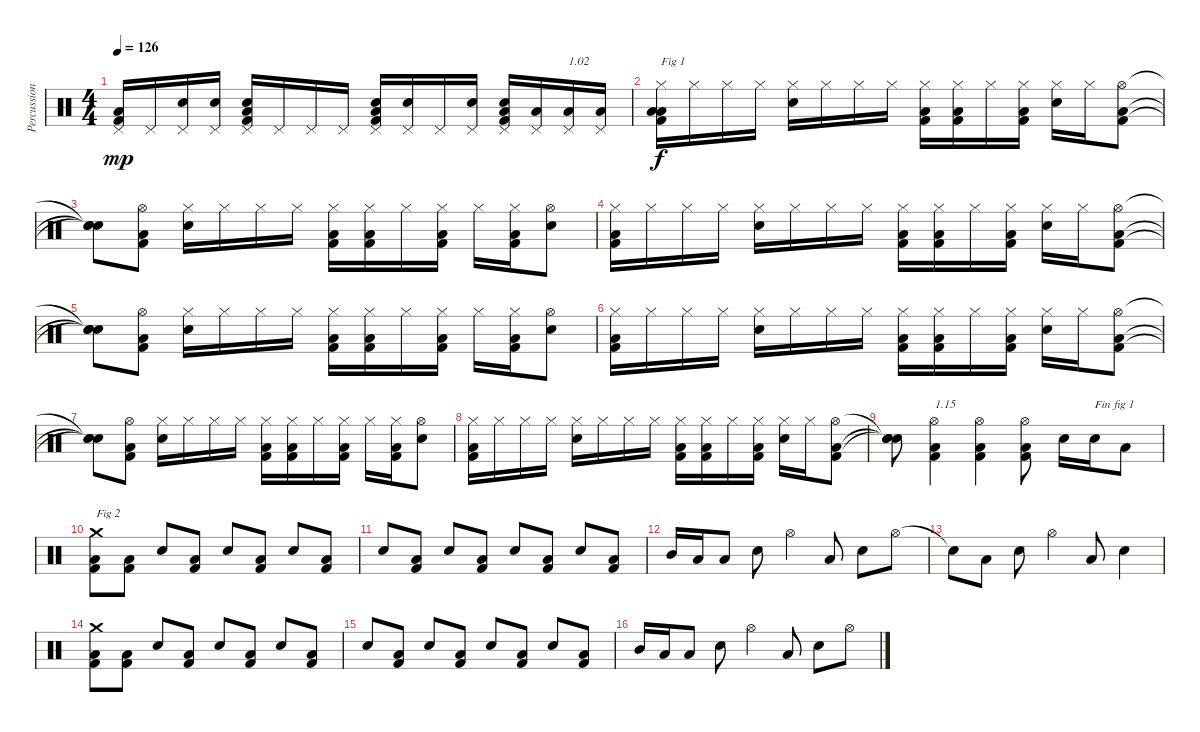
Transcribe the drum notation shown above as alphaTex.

\track ("Percussions" "Percussion") {instrument percussion}
\staff {score}
\articulation defaults
\ts (4 4)
\tempo 126
\clef neutral
\ks c
("Kick (hit) 2" "Low Floor Tom (hit)" "Pedal Hi-Hat (hit)").16{dy mp} "Pedal Hi-Hat (hit)".16 ("Snare (hit) 2" "Pedal Hi-Hat (hit)").16 ("Snare (hit) 2" "Pedal Hi-Hat (hit)").16 ("Kick (hit) 2" "Low Floor Tom (hit)" "Snare (hit) 2" "Pedal Hi-Hat (hit)").16 "Pedal Hi-Hat (hit)".16 "Pedal Hi-Hat (hit)".16 "Pedal Hi-Hat (hit)".16 ("Kick (hit) 2" "Low Floor Tom (hit)" "Snare (hit) 2" "Pedal Hi-Hat (hit)").16 ("Snare (hit) 2" "Pedal Hi-Hat (hit)").16 "Pedal Hi-Hat (hit)".16 ("Snare (hit) 2" "Pedal Hi-Hat (hit)").16 ("Kick (hit) 2" "Low Floor Tom (hit)" "Snare (hit) 2" "Pedal Hi-Hat (hit)").16 ("Low Tom (hit)" "Pedal Hi-Hat (hit)").16 ("Low Tom (hit)" "Pedal Hi-Hat (hit)").16{txt "1.02"} ("Low Tom (hit)" "Pedal Hi-Hat (hit)").16 |
("Kick (hit) 2" "Low Floor Tom (hit)" "Low Tom (hit)" "Hi-Hat (closed)").16{txt "Fig 1" dy f} "Hi-Hat (closed)".16 "Hi-Hat (closed)".16 "Hi-Hat (closed)".16 ("Snare (hit) 2" "Hi-Hat (closed)").16 "Hi-Hat (closed)".16 "Hi-Hat (closed)".16 "Hi-Hat (closed)".16 ("Kick (hit) 2" "Low Floor Tom (hit)" "Hi-Hat (closed)").16 ("Kick (hit) 2" "Low Floor Tom (hit)" "Hi-Hat (closed)").16 "Hi-Hat (closed)".16 ("Kick (hit) 2" "Low Floor Tom (hit)" "Hi-Hat (closed)").16 ("Snare (hit) 2" "Hi-Hat (closed)").16 "Hi-Hat (closed)".16 ("Kick (hit) 2" "Low Floor Tom (hit)" "Hi-Hat (open)").8 |
("Snare (hit)"{t} "Snare (hit)"{t} "Snare (hit)"{t}).8 ("Kick (hit) 2" "Low Floor Tom (hit)" "Hi-Hat (open)").8 ("Snare (hit) 2" "Hi-Hat (closed)").16 "Hi-Hat (closed)".16 "Hi-Hat (closed)".16 "Hi-Hat (closed)".16 ("Kick (hit) 2" "Low Floor Tom (hit)" "Hi-Hat (closed)").16 ("Kick (hit) 2" "Low Floor Tom (hit)" "Hi-Hat (closed)").16 "Hi-Hat (closed)".16 ("Kick (hit) 2" "Low Floor Tom (hit)" "Hi-Hat (closed)").16 "Hi-Hat (closed)".16 ("Kick (hit) 2" "Low Floor Tom (hit)" "Hi-Hat (closed)").16 ("Snare (hit) 2" "Hi-Hat (open)").8 |
("Kick (hit) 2" "Low Floor Tom (hit)" "Hi-Hat (closed)").16 "Hi-Hat (closed)".16 "Hi-Hat (closed)".16 "Hi-Hat (closed)".16 ("Snare (hit) 2" "Hi-Hat (closed)").16 "Hi-Hat (closed)".16 "Hi-Hat (closed)".16 "Hi-Hat (closed)".16 ("Kick (hit) 2" "Low Floor Tom (hit)" "Hi-Hat (closed)").16 ("Kick (hit) 2" "Low Floor Tom (hit)" "Hi-Hat (closed)").16 "Hi-Hat (closed)".16 ("Kick (hit) 2" "Low Floor Tom (hit)" "Hi-Hat (closed)").16 ("Snare (hit) 2" "Hi-Hat (closed)").16 "Hi-Hat (closed)".16 ("Kick (hit) 2" "Low Floor Tom (hit)" "Hi-Hat (open)").8 |
("Snare (hit)"{t} "Snare (hit)"{t} "Snare (hit)"{t}).8 ("Kick (hit) 2" "Low Floor Tom (hit)" "Hi-Hat (open)").8 ("Snare (hit) 2" "Hi-Hat (closed)").16 "Hi-Hat (closed)".16 "Hi-Hat (closed)".16 "Hi-Hat (closed)".16 ("Kick (hit) 2" "Low Floor Tom (hit)" "Hi-Hat (closed)").16 ("Kick (hit) 2" "Low Floor Tom (hit)" "Hi-Hat (closed)").16 "Hi-Hat (closed)".16 ("Kick (hit) 2" "Low Floor Tom (hit)" "Hi-Hat (closed)").16 "Hi-Hat (closed)".16 ("Kick (hit) 2" "Low Floor Tom (hit)" "Hi-Hat (closed)").16 ("Snare (hit) 2" "Hi-Hat (open)").8 |
("Kick (hit) 2" "Low Floor Tom (hit)" "Hi-Hat (closed)").16 "Hi-Hat (closed)".16 "Hi-Hat (closed)".16 "Hi-Hat (closed)".16 ("Snare (hit) 2" "Hi-Hat (closed)").16 "Hi-Hat (closed)".16 "Hi-Hat (closed)".16 "Hi-Hat (closed)".16 ("Kick (hit) 2" "Low Floor Tom (hit)" "Hi-Hat (closed)").16 ("Kick (hit) 2" "Low Floor Tom (hit)" "Hi-Hat (closed)").16 "Hi-Hat (closed)".16 ("Kick (hit) 2" "Low Floor Tom (hit)" "Hi-Hat (closed)").16 ("Snare (hit) 2" "Hi-Hat (closed)").16 "Hi-Hat (closed)".16 ("Kick (hit) 2" "Low Floor Tom (hit)" "Hi-Hat (open)").8 |
("Snare (hit)"{t} "Snare (hit)"{t} "Snare (hit)"{t}).8 ("Kick (hit) 2" "Low Floor Tom (hit)" "Hi-Hat (open)").8 ("Snare (hit) 2" "Hi-Hat (closed)").16 "Hi-Hat (closed)".16 "Hi-Hat (closed)".16 "Hi-Hat (closed)".16 ("Kick (hit) 2" "Low Floor Tom (hit)" "Hi-Hat (closed)").16 ("Kick (hit) 2" "Low Floor Tom (hit)" "Hi-Hat (closed)").16 "Hi-Hat (closed)".16 ("Kick (hit) 2" "Low Floor Tom (hit)" "Hi-Hat (closed)").16 "Hi-Hat (closed)".16 ("Kick (hit) 2" "Low Floor Tom (hit)" "Hi-Hat (closed)").16 ("Snare (hit) 2" "Hi-Hat (open)").8 |
("Kick (hit) 2" "Low Floor Tom (hit)" "Hi-Hat (closed)").16 "Hi-Hat (closed)".16 "Hi-Hat (closed)".16 "Hi-Hat (closed)".16 ("Snare (hit) 2" "Hi-Hat (closed)").16 "Hi-Hat (closed)".16 "Hi-Hat (closed)".16 "Hi-Hat (closed)".16 ("Kick (hit) 2" "Low Floor Tom (hit)" "Hi-Hat (closed)").16 ("Kick (hit) 2" "Low Floor Tom (hit)" "Hi-Hat (closed)").16 "Hi-Hat (closed)".16 ("Kick (hit) 2" "Low Floor Tom (hit)" "Hi-Hat (closed)").16 ("Snare (hit) 2" "Hi-Hat (closed)").16 "Hi-Hat (closed)".16 ("Kick (hit) 2" "Low Floor Tom (hit)" "Hi-Hat (open)").8 |
("Snare (hit)"{t} "Snare (hit)"{t} "Snare (hit)"{t}).8 ("Kick (hit) 2" "Low Floor Tom (hit)" "Hi-Hat (open)").4{txt "1.15"} ("Kick (hit) 2" "Low Floor Tom (hit)" "Hi-Hat (open)").4 ("Kick (hit) 2" "Low Floor Tom (hit)" "Hi-Hat (open)").8 "Snare (hit) 2".16 "Snare (hit) 2".16{txt "Fin fig 1"} "Low Tom (hit)".8 |
("Kick (hit) 2" "Low Floor Tom (hit)" "Crash medium (hit)").8{txt "Fig 2"} ("Kick (hit) 2" "Low Floor Tom (hit)").8 "Snare (hit) 2".8 ("Kick (hit) 2" "Low Floor Tom (hit)").8 "Snare (hit) 2".8 ("Kick (hit) 2" "Low Floor Tom (hit)").8 "Snare (hit) 2".8 ("Kick (hit) 2" "Low Floor Tom (hit)").8 |
"Snare (hit) 2".8 ("Kick (hit) 2" "Low Floor Tom (hit)").8 "Snare (hit) 2".8 ("Kick (hit) 2" "Low Floor Tom (hit)").8 "Snare (hit) 2".8 ("Kick (hit) 2" "Low Floor Tom (hit)").8 "Snare (hit) 2".8 ("Kick (hit) 2" "Low Floor Tom (hit)").8 |
"Mid Tom (hit)".16 "Low Tom (hit)".16 "Low Tom (hit)".8 "Snare (hit) 2".8 "Hi-Hat (open)".4 "Low Tom (hit)".8 "Snare (hit) 2".8 "Hi-Hat (open)".8 |
"Snare (hit)"{t}.8 "Low Tom (hit)".8 "Snare (hit) 2".8 "Hi-Hat (open)".4 "Low Tom (hit)".8 "Snare (hit) 2".4 |
("Kick (hit) 2" "Low Floor Tom (hit)" "Crash medium (hit)").8 ("Kick (hit) 2" "Low Floor Tom (hit)").8 "Snare (hit) 2".8 ("Kick (hit) 2" "Low Floor Tom (hit)").8 "Snare (hit) 2".8 ("Kick (hit) 2" "Low Floor Tom (hit)").8 "Snare (hit) 2".8 ("Kick (hit) 2" "Low Floor Tom (hit)").8 |
"Snare (hit) 2".8 ("Kick (hit) 2" "Low Floor Tom (hit)").8 "Snare (hit) 2".8 ("Kick (hit) 2" "Low Floor Tom (hit)").8 "Snare (hit) 2".8 ("Kick (hit) 2" "Low Floor Tom (hit)").8 "Snare (hit) 2".8 ("Kick (hit) 2" "Low Floor Tom (hit)").8 |
"Mid Tom (hit)".16 "Low Tom (hit)".16 "Low Tom (hit)".8 "Snare (hit) 2".8 "Hi-Hat (open)".4 "Low Tom (hit)".8 "Snare (hit) 2".8 "Hi-Hat (open)".8
